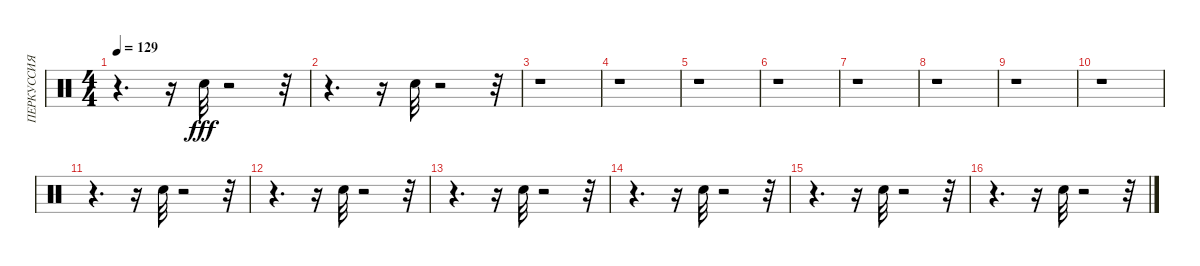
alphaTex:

\track ("ПЕРКУССИЯ" "ПЕРКУССИЯ") {instrument percussion}
\staff {score}
\articulation defaults
\ts (4 4)
\tempo 129
\clef neutral
\ks c
r.4{d dy fff} r.16 "Snare (hit) 2".32 r.2 r.32 |
r.4{d} r.16 "Snare (hit) 2".32 r.2 r.32 |
r.1 |
r.1 |
r.1 |
r.1 |
r.1 |
r.1 |
r.1 |
r.1 |
r.4{d} r.16 "Snare (hit) 2".32 r.2 r.32 |
r.4{d} r.16 "Snare (hit) 2".32 r.2 r.32 |
r.4{d} r.16 "Snare (hit) 2".32 r.2 r.32 |
r.4{d} r.16 "Snare (hit) 2".32 r.2 r.32 |
r.4{d} r.16 "Snare (hit) 2".32 r.2 r.32 |
r.4{d} r.16 "Snare (hit) 2".32 r.2 r.32
